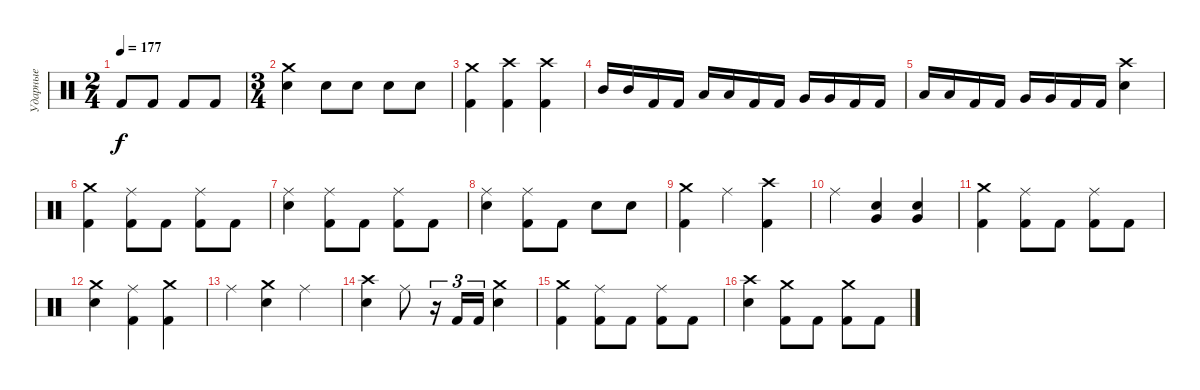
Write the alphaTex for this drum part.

\track ("Ударные" "Ударные") {instrument percussion}
\staff {score}
\articulation defaults
\ts (2 4)
\tempo 177
\clef neutral
\ks c "Kick (hit) 2".8{dy f} "Kick (hit) 2".8 "Kick (hit) 2".8 "Kick (hit) 2".8
|
\ts (3 4)
("Crash medium (hit)" "Snare (hit) 2").4 "Snare (hit) 2".8 "Snare (hit) 2".8 "Snare (hit) 2".8 "Snare (hit) 2".8 |
("Crash medium (hit)" "Kick (hit) 2").4 ("Crash high (hit)" "Kick (hit) 2").4 ("Crash high (hit)" "Kick (hit) 2").4 |
"Mid Tom (hit)".16 "Mid Tom (hit)".16 "Kick (hit) 2".16 "Kick (hit) 2".16 "Low Tom (hit)".16 "Low Tom (hit)".16 "Kick (hit) 2".16 "Kick (hit) 2".16 "Very Low Tom (hit)".16 "Very Low Tom (hit)".16 "Kick (hit) 2".16 "Kick (hit) 2".16 |
"Low Floor Tom (hit)".16 "Low Floor Tom (hit)".16 "Kick (hit) 2".16 "Kick (hit) 2".16 "Very Low Tom (hit)".16 "Very Low Tom (hit)".16 "Kick (hit) 2".16 "Kick (hit) 2".16 ("Crash high (hit)" "Snare (hit) 2").4 |
("Crash medium (hit)" "Kick (hit) 2").4 ("Ride (middle)" "Kick (hit) 2").8 "Kick (hit) 2".8 ("Ride (middle)" "Kick (hit) 2").8 "Kick (hit) 2".8 |
("Ride (middle)" "Snare (hit) 2").4 ("Ride (middle)" "Kick (hit) 2").8 "Kick (hit) 2".8 ("Ride (middle)" "Kick (hit) 2").8 "Kick (hit) 2".8 |
("Ride (middle)" "Snare (hit) 2").4 ("Ride (middle)" "Kick (hit) 2").8 "Kick (hit) 2".8 "Snare (hit) 2".8 "Snare (hit) 2".8 |
("Crash medium (hit)" "Kick (hit) 2").4 "Ride (middle)".4 ("Crash high (hit)" "Kick (hit) 2").4 |
"Ride (middle)".4 ("Snare (hit) 2" "Very Low Tom (hit)").4 ("Snare (hit) 2" "Very Low Tom (hit)").4 |
("Crash medium (hit)" "Kick (hit) 2").4 ("Ride (middle)" "Kick (hit) 2").8 "Kick (hit) 2".8 ("Ride (middle)" "Kick (hit) 2").8 "Kick (hit) 2".8 |
("Crash medium (hit)" "Snare (hit) 2").4 ("Ride (middle)" "Kick (hit) 2").4 ("Crash medium (hit)" "Kick (hit) 2").4 |
"Ride (middle)".4 ("Crash medium (hit)" "Snare (hit) 2").4 "Ride (middle)".4 |
("Crash high (hit)" "Snare (hit) 2").4 "Ride (middle)".8 r.16{tu (3 2)} "Kick (hit) 2".16{tu (3 2)} "Kick (hit) 2".16{tu (3 2)} ("Crash medium (hit)" "Snare (hit) 2").4 |
("Crash medium (hit)" "Kick (hit) 2").4 ("Ride (middle)" "Kick (hit) 2").8 "Kick (hit) 2".8 ("Ride (middle)" "Kick (hit) 2").8 "Kick (hit) 2".8 |
("Crash high (hit)" "Snare (hit) 2").4 ("Crash medium (hit)" "Kick (hit) 2").8 "Kick (hit) 2".8 ("Crash medium (hit)" "Kick (hit) 2").8 "Kick (hit) 2".8
